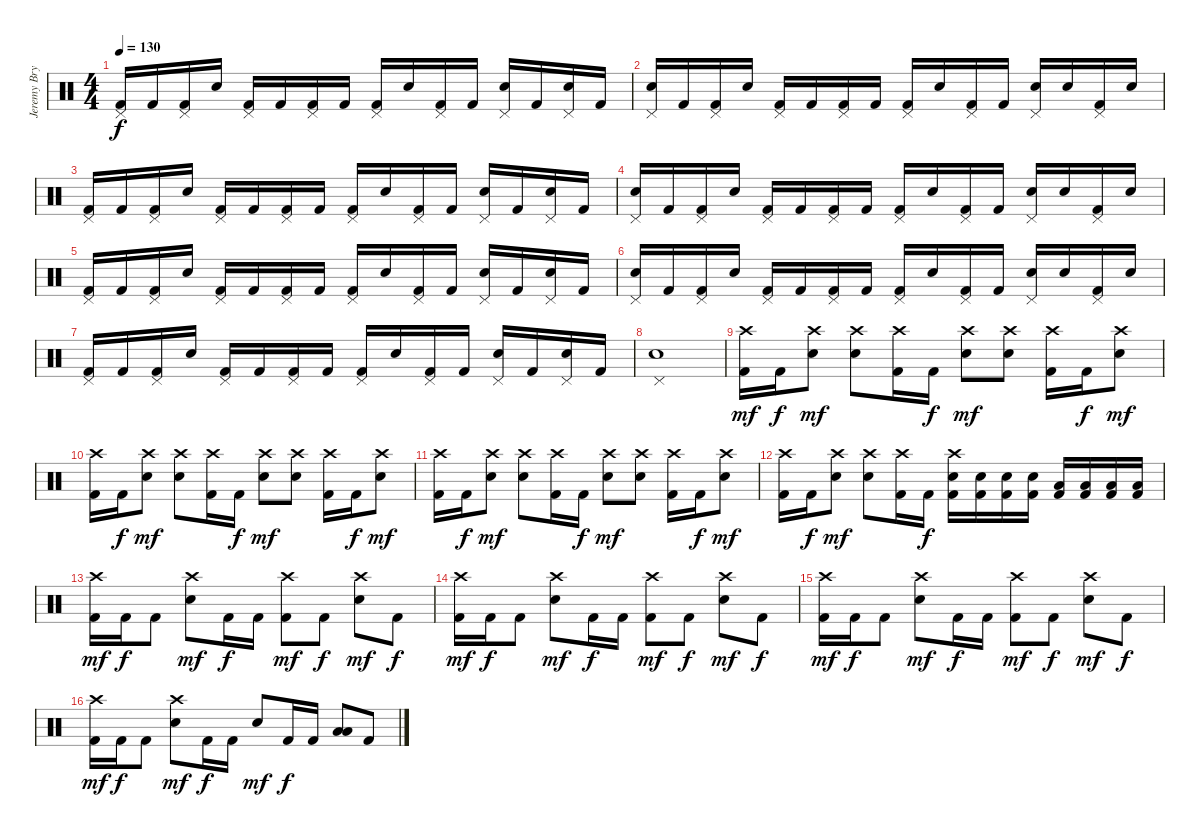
\track ("Jeremy Bryan - Drums" "Jeremy Bry") {instrument percussion}
\staff {score}
\articulation defaults
\ts (4 4)
\tempo 130
\clef neutral
\ks c
("Pedal Hi-Hat (hit)" "Kick (hit) 2").16{dy f volume 8} "Kick (hit) 2".16 ("Pedal Hi-Hat (hit)" "Kick (hit) 2").16 "Electric Snare (hit)".16 ("Pedal Hi-Hat (hit)" "Kick (hit) 2").16 "Kick (hit) 2".16 ("Pedal Hi-Hat (hit)" "Kick (hit) 2").16 "Kick (hit) 2".16 ("Pedal Hi-Hat (hit)" "Kick (hit) 2").16 "Electric Snare (hit)".16 ("Pedal Hi-Hat (hit)" "Kick (hit) 2").16 "Kick (hit) 2".16 ("Pedal Hi-Hat (hit)" "Electric Snare (hit)").16{volume 9} "Kick (hit) 2".16 ("Pedal Hi-Hat (hit)" "Electric Snare (hit)").16 "Kick (hit) 2".16 |
("Pedal Hi-Hat (hit)" "Electric Snare (hit)").16 "Kick (hit) 2".16 ("Pedal Hi-Hat (hit)" "Kick (hit) 2").16 "Electric Snare (hit)".16 ("Pedal Hi-Hat (hit)" "Kick (hit) 2").16 "Kick (hit) 2".16 ("Pedal Hi-Hat (hit)" "Kick (hit) 2").16 "Kick (hit) 2".16 ("Pedal Hi-Hat (hit)" "Kick (hit) 2").16 "Electric Snare (hit)".16{volume 10} ("Pedal Hi-Hat (hit)" "Kick (hit) 2").16 "Kick (hit) 2".16 ("Pedal Hi-Hat (hit)" "Electric Snare (hit)").16 "Electric Snare (hit)".16 ("Pedal Hi-Hat (hit)" "Kick (hit) 2").16 "Electric Snare (hit)".16 |
("Pedal Hi-Hat (hit)" "Kick (hit) 2").16 "Kick (hit) 2".16 ("Pedal Hi-Hat (hit)" "Kick (hit) 2").16 "Electric Snare (hit)".16 ("Pedal Hi-Hat (hit)" "Kick (hit) 2").16 "Kick (hit) 2".16 ("Pedal Hi-Hat (hit)" "Kick (hit) 2").16 "Kick (hit) 2".16 ("Pedal Hi-Hat (hit)" "Kick (hit) 2").16 "Electric Snare (hit)".16 ("Pedal Hi-Hat (hit)" "Kick (hit) 2").16 "Kick (hit) 2".16{volume 11} ("Pedal Hi-Hat (hit)" "Electric Snare (hit)").16 "Kick (hit) 2".16 ("Pedal Hi-Hat (hit)" "Electric Snare (hit)").16 "Kick (hit) 2".16 |
("Pedal Hi-Hat (hit)" "Electric Snare (hit)").16 "Kick (hit) 2".16 ("Pedal Hi-Hat (hit)" "Kick (hit) 2").16 "Electric Snare (hit)".16 ("Pedal Hi-Hat (hit)" "Kick (hit) 2").16 "Kick (hit) 2".16 ("Pedal Hi-Hat (hit)" "Kick (hit) 2").16 "Kick (hit) 2".16 ("Pedal Hi-Hat (hit)" "Kick (hit) 2").16 "Electric Snare (hit)".16 ("Pedal Hi-Hat (hit)" "Kick (hit) 2").16 "Kick (hit) 2".16{volume 12} ("Pedal Hi-Hat (hit)" "Electric Snare (hit)").16 "Electric Snare (hit)".16 ("Pedal Hi-Hat (hit)" "Kick (hit) 2").16 "Electric Snare (hit)".16 |
("Pedal Hi-Hat (hit)" "Kick (hit) 2").16 "Kick (hit) 2".16 ("Pedal Hi-Hat (hit)" "Kick (hit) 2").16 "Electric Snare (hit)".16 ("Pedal Hi-Hat (hit)" "Kick (hit) 2").16 "Kick (hit) 2".16 ("Pedal Hi-Hat (hit)" "Kick (hit) 2").16 "Kick (hit) 2".16 ("Pedal Hi-Hat (hit)" "Kick (hit) 2").16 "Electric Snare (hit)".16 ("Pedal Hi-Hat (hit)" "Kick (hit) 2").16 "Kick (hit) 2".16 ("Pedal Hi-Hat (hit)" "Electric Snare (hit)").16 "Kick (hit) 2".16 ("Pedal Hi-Hat (hit)" "Electric Snare (hit)").16 "Kick (hit) 2".16 |
("Pedal Hi-Hat (hit)" "Electric Snare (hit)").16 "Kick (hit) 2".16 ("Pedal Hi-Hat (hit)" "Kick (hit) 2").16 "Electric Snare (hit)".16 ("Pedal Hi-Hat (hit)" "Kick (hit) 2").16 "Kick (hit) 2".16 ("Pedal Hi-Hat (hit)" "Kick (hit) 2").16 "Kick (hit) 2".16 ("Pedal Hi-Hat (hit)" "Kick (hit) 2").16 "Electric Snare (hit)".16 ("Pedal Hi-Hat (hit)" "Kick (hit) 2").16 "Kick (hit) 2".16 ("Pedal Hi-Hat (hit)" "Electric Snare (hit)").16 "Electric Snare (hit)".16 ("Pedal Hi-Hat (hit)" "Kick (hit) 2").16 "Electric Snare (hit)".16 |
("Pedal Hi-Hat (hit)" "Kick (hit) 2").16 "Kick (hit) 2".16 ("Pedal Hi-Hat (hit)" "Kick (hit) 2").16 "Electric Snare (hit)".16 ("Pedal Hi-Hat (hit)" "Kick (hit) 2").16 "Kick (hit) 2".16 ("Pedal Hi-Hat (hit)" "Kick (hit) 2").16 "Kick (hit) 2".16 ("Pedal Hi-Hat (hit)" "Kick (hit) 2").16 "Electric Snare (hit)".16 ("Pedal Hi-Hat (hit)" "Kick (hit) 2").16 "Kick (hit) 2".16 ("Pedal Hi-Hat (hit)" "Electric Snare (hit)").16 "Kick (hit) 2".16 ("Pedal Hi-Hat (hit)" "Electric Snare (hit)").16 "Kick (hit) 2".16 |
("Pedal Hi-Hat (hit)" "Electric Snare (hit)").1 |
("Crash high (hit)" "Kick (hit) 2").16{dy mf} "Kick (hit) 2".16{dy f} ("Crash high (hit)" "Electric Snare (hit)").8{dy mf} ("Crash high (hit)" "Electric Snare (hit)").8 ("Crash high (hit)" "Kick (hit) 2").16 "Kick (hit) 2".16{dy f} ("Crash high (hit)" "Electric Snare (hit)").8{dy mf} ("Crash high (hit)" "Electric Snare (hit)").8 ("Crash high (hit)" "Kick (hit) 2").16 "Kick (hit) 2".16{dy f} ("Crash high (hit)" "Electric Snare (hit)").8{dy mf} |
("Crash high (hit)" "Kick (hit) 2").16 "Kick (hit) 2".16{dy f} ("Crash high (hit)" "Electric Snare (hit)").8{dy mf} ("Crash high (hit)" "Electric Snare (hit)").8 ("Crash high (hit)" "Kick (hit) 2").16 "Kick (hit) 2".16{dy f} ("Crash high (hit)" "Electric Snare (hit)").8{dy mf} ("Crash high (hit)" "Electric Snare (hit)").8 ("Crash high (hit)" "Kick (hit) 2").16 "Kick (hit) 2".16{dy f} ("Crash high (hit)" "Electric Snare (hit)").8{dy mf} |
("Crash high (hit)" "Kick (hit) 2").16 "Kick (hit) 2".16{dy f} ("Crash high (hit)" "Electric Snare (hit)").8{dy mf} ("Crash high (hit)" "Electric Snare (hit)").8 ("Crash high (hit)" "Kick (hit) 2").16 "Kick (hit) 2".16{dy f} ("Crash high (hit)" "Electric Snare (hit)").8{dy mf} ("Crash high (hit)" "Electric Snare (hit)").8 ("Crash high (hit)" "Kick (hit) 2").16 "Kick (hit) 2".16{dy f} ("Crash high (hit)" "Electric Snare (hit)").8{dy mf} |
("Crash high (hit)" "Kick (hit) 2").16 "Kick (hit) 2".16{dy f} ("Crash high (hit)" "Electric Snare (hit)").8{dy mf} ("Crash high (hit)" "Electric Snare (hit)").8 ("Crash high (hit)" "Kick (hit) 2").16 "Kick (hit) 2".16{dy f} ("Crash high (hit)" "Electric Snare (hit)" "Kick (hit) 2").16 ("Electric Snare (hit)" "Kick (hit) 2").16 ("Electric Snare (hit)" "Kick (hit) 2").16 ("Electric Snare (hit)" "Kick (hit) 2").16 ("Low Tom (hit)" "Kick (hit) 2").16 ("Low Tom (hit)" "Kick (hit) 2").16 ("Low Tom (hit)" "Kick (hit) 2").16 ("Low Tom (hit)" "Kick (hit) 2").16 |
("Crash high (hit)" "Kick (hit) 2").16{dy mf} "Kick (hit) 2".16{dy f} "Kick (hit) 2".8 ("Crash high (hit)" "Electric Snare (hit)").8{dy mf} "Kick (hit) 2".16{dy f} "Kick (hit) 2".16 ("Crash high (hit)" "Kick (hit) 2").8{dy mf} "Kick (hit) 2".8{dy f} ("Crash high (hit)" "Electric Snare (hit)").8{dy mf} "Kick (hit) 2".8{dy f} |
("Crash high (hit)" "Kick (hit) 2").16{dy mf} "Kick (hit) 2".16{dy f} "Kick (hit) 2".8 ("Crash high (hit)" "Electric Snare (hit)").8{dy mf} "Kick (hit) 2".16{dy f} "Kick (hit) 2".16 ("Crash high (hit)" "Kick (hit) 2").8{dy mf} "Kick (hit) 2".8{dy f} ("Crash high (hit)" "Electric Snare (hit)").8{dy mf} "Kick (hit) 2".8{dy f} |
("Crash high (hit)" "Kick (hit) 2").16{dy mf} "Kick (hit) 2".16{dy f} "Kick (hit) 2".8 ("Crash high (hit)" "Electric Snare (hit)").8{dy mf} "Kick (hit) 2".16{dy f} "Kick (hit) 2".16 ("Crash high (hit)" "Kick (hit) 2").8{dy mf} "Kick (hit) 2".8{dy f} ("Crash high (hit)" "Electric Snare (hit)").8{dy mf} "Kick (hit) 2".8{dy f} |
("Crash high (hit)" "Kick (hit) 2").16{dy mf} "Kick (hit) 2".16{dy f} "Kick (hit) 2".8 ("Crash high (hit)" "Electric Snare (hit)").8{dy mf} "Kick (hit) 2".16{dy f} "Kick (hit) 2".16 "Electric Snare (hit)".8{dy mf} "Kick (hit) 2".16{dy f} "Kick (hit) 2".16 ("Low Tom (hit)" "Low Floor Tom (hit)").8 "Kick (hit) 2".8
